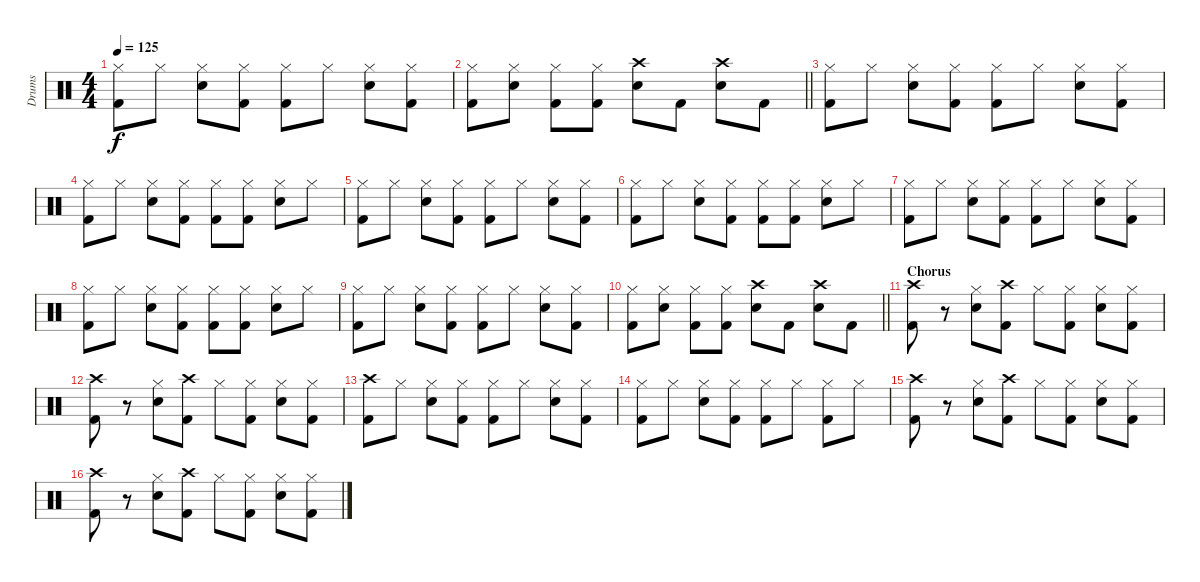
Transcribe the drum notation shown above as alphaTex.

\track ("Drums" "Drums") {instrument percussion}
\staff {score}
\articulation defaults
\ts (4 4)
\tempo 125
\clef neutral
\ks c
("Hi-Hat (closed)" "Kick (hit) 2").8{dy f} "Hi-Hat (closed)".8 ("Hi-Hat (closed)" "Snare (hit) 2").8 ("Hi-Hat (closed)" "Kick (hit) 2").8 ("Hi-Hat (closed)" "Kick (hit) 2").8 "Hi-Hat (closed)".8 ("Hi-Hat (closed)" "Snare (hit) 2").8 ("Hi-Hat (closed)" "Kick (hit) 2").8 |
\barLineRight lightlight
("Hi-Hat (closed)" "Kick (hit) 2").8 ("Hi-Hat (closed)" "Snare (hit) 2").8 ("Hi-Hat (closed)" "Kick (hit) 2").8 ("Hi-Hat (closed)" "Kick (hit) 2").8 ("Crash high (hit)" "Snare (hit) 2").8 "Kick (hit) 2".8 ("Crash high (hit)" "Snare (hit) 2").8 "Kick (hit) 2".8 |
("Hi-Hat (closed)" "Kick (hit) 2").8 "Hi-Hat (closed)".8 ("Hi-Hat (closed)" "Snare (hit) 2").8 ("Hi-Hat (closed)" "Kick (hit) 2").8 ("Hi-Hat (closed)" "Kick (hit) 2").8 "Hi-Hat (closed)".8 ("Hi-Hat (closed)" "Snare (hit) 2").8 ("Hi-Hat (closed)" "Kick (hit) 2").8 |
("Hi-Hat (closed)" "Kick (hit) 2").8 "Hi-Hat (closed)".8 ("Hi-Hat (closed)" "Snare (hit) 2").8 ("Hi-Hat (closed)" "Kick (hit) 2").8 ("Hi-Hat (closed)" "Kick (hit) 2").8 ("Hi-Hat (closed)" "Kick (hit) 2").8 ("Hi-Hat (closed)" "Snare (hit) 2").8 "Hi-Hat (closed)".8 |
("Hi-Hat (closed)" "Kick (hit) 2").8 "Hi-Hat (closed)".8 ("Hi-Hat (closed)" "Snare (hit) 2").8 ("Hi-Hat (closed)" "Kick (hit) 2").8 ("Hi-Hat (closed)" "Kick (hit) 2").8 "Hi-Hat (closed)".8 ("Hi-Hat (closed)" "Snare (hit) 2").8 ("Hi-Hat (closed)" "Kick (hit) 2").8 |
("Hi-Hat (closed)" "Kick (hit) 2").8 "Hi-Hat (closed)".8 ("Hi-Hat (closed)" "Snare (hit) 2").8 ("Hi-Hat (closed)" "Kick (hit) 2").8 ("Hi-Hat (closed)" "Kick (hit) 2").8 ("Hi-Hat (closed)" "Kick (hit) 2").8 ("Hi-Hat (closed)" "Snare (hit) 2").8 "Hi-Hat (closed)".8 |
("Hi-Hat (closed)" "Kick (hit) 2").8 "Hi-Hat (closed)".8 ("Hi-Hat (closed)" "Snare (hit) 2").8 ("Hi-Hat (closed)" "Kick (hit) 2").8 ("Hi-Hat (closed)" "Kick (hit) 2").8 "Hi-Hat (closed)".8 ("Hi-Hat (closed)" "Snare (hit) 2").8 ("Hi-Hat (closed)" "Kick (hit) 2").8 |
("Hi-Hat (closed)" "Kick (hit) 2").8 "Hi-Hat (closed)".8 ("Hi-Hat (closed)" "Snare (hit) 2").8 ("Hi-Hat (closed)" "Kick (hit) 2").8 ("Hi-Hat (closed)" "Kick (hit) 2").8 ("Hi-Hat (closed)" "Kick (hit) 2").8 ("Hi-Hat (closed)" "Snare (hit) 2").8 "Hi-Hat (closed)".8 |
("Hi-Hat (closed)" "Kick (hit) 2").8 "Hi-Hat (closed)".8 ("Hi-Hat (closed)" "Snare (hit) 2").8 ("Hi-Hat (closed)" "Kick (hit) 2").8 ("Hi-Hat (closed)" "Kick (hit) 2").8 "Hi-Hat (closed)".8 ("Hi-Hat (closed)" "Snare (hit) 2").8 ("Hi-Hat (closed)" "Kick (hit) 2").8 |
\barLineRight lightlight
("Hi-Hat (closed)" "Kick (hit) 2").8 ("Hi-Hat (closed)" "Snare (hit) 2").8 ("Hi-Hat (closed)" "Kick (hit) 2").8 ("Hi-Hat (closed)" "Kick (hit) 2").8 ("Crash high (hit)" "Snare (hit) 2").8 "Kick (hit) 2".8 ("Crash high (hit)" "Snare (hit) 2").8 "Kick (hit) 2".8 |
\section ("" "Chorus")
("Crash high (hit)" "Kick (hit) 2").8 r.8 ("Hi-Hat (closed)" "Snare (hit) 2").8 ("Crash high (hit)" "Kick (hit) 2").8 "Hi-Hat (closed)".8 ("Hi-Hat (closed)" "Kick (hit) 2").8 ("Hi-Hat (closed)" "Snare (hit) 2").8 ("Hi-Hat (closed)" "Kick (hit) 2").8 |
("Crash high (hit)" "Kick (hit) 2").8 r.8 ("Hi-Hat (closed)" "Snare (hit) 2").8 ("Crash high (hit)" "Kick (hit) 2").8 "Hi-Hat (closed)".8 ("Hi-Hat (closed)" "Kick (hit) 2").8 ("Hi-Hat (closed)" "Snare (hit) 2").8 ("Hi-Hat (closed)" "Kick (hit) 2").8 |
("Crash high (hit)" "Kick (hit) 2").8 "Hi-Hat (closed)".8 ("Hi-Hat (closed)" "Snare (hit) 2").8 ("Hi-Hat (closed)" "Kick (hit) 2").8 ("Hi-Hat (closed)" "Kick (hit) 2").8 "Hi-Hat (closed)".8 ("Hi-Hat (closed)" "Snare (hit) 2").8 ("Hi-Hat (closed)" "Kick (hit) 2").8 |
("Hi-Hat (closed)" "Kick (hit) 2").8 "Hi-Hat (closed)".8 ("Hi-Hat (closed)" "Snare (hit) 2").8 ("Hi-Hat (closed)" "Kick (hit) 2").8 ("Hi-Hat (closed)" "Kick (hit) 2").8 "Hi-Hat (closed)".8 ("Hi-Hat (closed)" "Kick (hit) 2").8 "Hi-Hat (closed)".8 |
("Crash high (hit)" "Kick (hit) 2").8 r.8 ("Hi-Hat (closed)" "Snare (hit) 2").8 ("Crash high (hit)" "Kick (hit) 2").8 "Hi-Hat (closed)".8 ("Hi-Hat (closed)" "Kick (hit) 2").8 ("Hi-Hat (closed)" "Snare (hit) 2").8 ("Hi-Hat (closed)" "Kick (hit) 2").8 |
("Crash high (hit)" "Kick (hit) 2").8 r.8 ("Hi-Hat (closed)" "Snare (hit) 2").8 ("Crash high (hit)" "Kick (hit) 2").8 "Hi-Hat (closed)".8 ("Hi-Hat (closed)" "Kick (hit) 2").8 ("Hi-Hat (closed)" "Snare (hit) 2").8 ("Hi-Hat (closed)" "Kick (hit) 2").8
